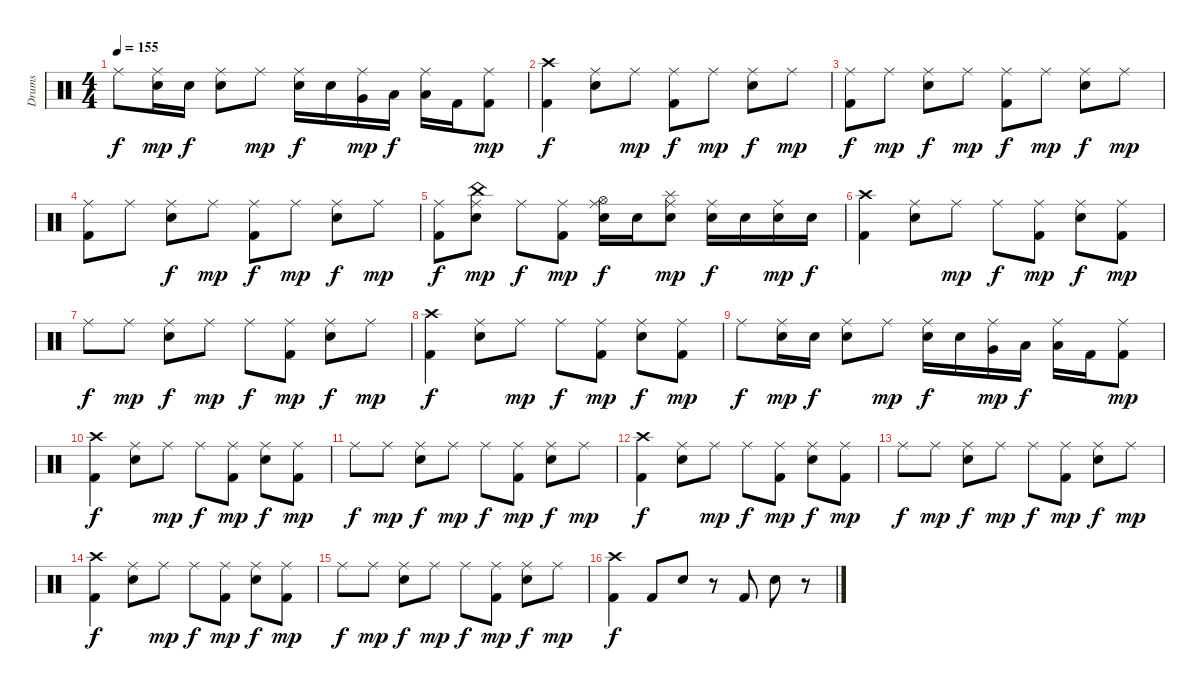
\track ("Drums" "Drums") {instrument percussion}
\staff {score}
\articulation defaults
\ts (4 4)
\tempo 155
\clef neutral
\ks c "Ride (middle)".8{dy f}
("Electric Snare (hit)" "Ride (middle)").16{dy mp} "Electric Snare (hit)".16{dy f} ("Electric Snare (hit)" "Ride (middle)").8 "Ride (middle)".8{dy mp} ("Electric Snare (hit)" "Ride (middle)").16{dy f} "Electric Snare (hit)".16 ("Very Low Tom (hit)" "Ride (middle)").16{dy mp} "Low Floor Tom (hit)".16{dy f} ("Low Floor Tom (hit)" "Ride (middle)").16 "Kick (hit) 2".16 ("Kick (hit) 2" "Ride (middle)").8{dy mp} |
("Kick (hit) 2" "Crash high (hit)").4{dy f} ("Ride (middle)" "Electric Snare (hit)").8 "Ride (middle)".8{dy mp} ("Kick (hit) 2" "Ride (middle)").8{dy f} "Ride (middle)".8{dy mp} ("Electric Snare (hit)" "Ride (middle)").8{dy f} "Ride (middle)".8{dy mp} |
("Kick (hit) 2" "Ride (middle)").8{dy f} "Ride (middle)".8{dy mp} ("Electric Snare (hit)" "Ride (middle)").8{dy f} "Ride (middle)".8{dy mp} ("Kick (hit) 2" "Ride (middle)").8{dy f} "Ride (middle)".8{dy mp} ("Electric Snare (hit)" "Ride (middle)").8{dy f} "Ride (middle)".8{dy mp} |
("Ride (middle)" "Kick (hit) 2").8 "Ride (middle)".8 ("Ride (middle)" "Electric Snare (hit)").8{dy f} "Ride (middle)".8{dy mp} ("Kick (hit) 2" "Ride (middle)").8{dy f} "Ride (middle)".8{dy mp} ("Electric Snare (hit)" "Ride (middle)").8{dy f} "Ride (middle)".8{dy mp} |
("Kick (hit) 2" "Ride (middle)").8{dy f} ("Electric Snare (hit)" "China (hit)" "Ride (middle)").8{dy mp} "Ride (middle)".8{dy f} ("Kick (hit) 2" "Ride (middle)").8{dy mp} ("Hi-Hat (open)" "Electric Snare (hit)" "Ride (middle)").16{dy f} "Electric Snare (hit)".16 ("Splash (hit)" "Electric Snare (hit)" "Ride (middle)").8{dy mp} ("Electric Snare (hit)" "Ride (middle)").16{dy f} "Electric Snare (hit)".16 ("Electric Snare (hit)" "Ride (middle)").16{dy mp} "Electric Snare (hit)".16{dy f} |
("Kick (hit) 2" "Crash high (hit)").4 ("Ride (middle)" "Electric Snare (hit)").8 "Ride (middle)".8{dy mp} "Ride (middle)".8{dy f} ("Kick (hit) 2" "Ride (middle)").8{dy mp} ("Electric Snare (hit)" "Ride (middle)").8{dy f} ("Kick (hit) 2" "Ride (middle)").8{dy mp} |
"Ride (middle)".8{dy f} "Ride (middle)".8{dy mp} ("Electric Snare (hit)" "Ride (middle)").8{dy f} "Ride (middle)".8{dy mp} "Ride (middle)".8{dy f} ("Kick (hit) 2" "Ride (middle)").8{dy mp} ("Electric Snare (hit)" "Ride (middle)").8{dy f} "Ride (middle)".8{dy mp} |
("Kick (hit) 2" "Crash high (hit)").4{dy f} ("Ride (middle)" "Electric Snare (hit)").8 "Ride (middle)".8{dy mp} "Ride (middle)".8{dy f} ("Kick (hit) 2" "Ride (middle)").8{dy mp} ("Electric Snare (hit)" "Ride (middle)").8{dy f} ("Kick (hit) 2" "Ride (middle)").8{dy mp} |
"Ride (middle)".8{dy f} ("Electric Snare (hit)" "Ride (middle)").16{dy mp} "Electric Snare (hit)".16{dy f} ("Electric Snare (hit)" "Ride (middle)").8 "Ride (middle)".8{dy mp} ("Electric Snare (hit)" "Ride (middle)").16{dy f} "Electric Snare (hit)".16 ("Very Low Tom (hit)" "Ride (middle)").16{dy mp} "Low Floor Tom (hit)".16{dy f} ("Low Floor Tom (hit)" "Ride (middle)").16 "Kick (hit) 2".16 ("Kick (hit) 2" "Ride (middle)").8{dy mp} |
("Kick (hit) 2" "Crash high (hit)").4{dy f} ("Ride (middle)" "Electric Snare (hit)").8 "Ride (middle)".8{dy mp} "Ride (middle)".8{dy f} ("Kick (hit) 2" "Ride (middle)").8{dy mp} ("Electric Snare (hit)" "Ride (middle)").8{dy f} ("Kick (hit) 2" "Ride (middle)").8{dy mp} |
"Ride (middle)".8{dy f} "Ride (middle)".8{dy mp} ("Electric Snare (hit)" "Ride (middle)").8{dy f} "Ride (middle)".8{dy mp} "Ride (middle)".8{dy f} ("Kick (hit) 2" "Ride (middle)").8{dy mp} ("Electric Snare (hit)" "Ride (middle)").8{dy f} "Ride (middle)".8{dy mp} |
("Kick (hit) 2" "Crash high (hit)").4{dy f} ("Ride (middle)" "Electric Snare (hit)").8 "Ride (middle)".8{dy mp} "Ride (middle)".8{dy f} ("Kick (hit) 2" "Ride (middle)").8{dy mp} ("Electric Snare (hit)" "Ride (middle)").8{dy f} ("Kick (hit) 2" "Ride (middle)").8{dy mp} |
"Ride (middle)".8{dy f} "Ride (middle)".8{dy mp} ("Electric Snare (hit)" "Ride (middle)").8{dy f} "Ride (middle)".8{dy mp} "Ride (middle)".8{dy f} ("Kick (hit) 2" "Ride (middle)").8{dy mp} ("Electric Snare (hit)" "Ride (middle)").8{dy f} "Ride (middle)".8{dy mp} |
("Kick (hit) 2" "Crash high (hit)").4{dy f} ("Ride (middle)" "Electric Snare (hit)").8 "Ride (middle)".8{dy mp} "Ride (middle)".8{dy f} ("Kick (hit) 2" "Ride (middle)").8{dy mp} ("Electric Snare (hit)" "Ride (middle)").8{dy f} ("Kick (hit) 2" "Ride (middle)").8{dy mp} |
"Ride (middle)".8{dy f} "Ride (middle)".8{dy mp} ("Electric Snare (hit)" "Ride (middle)").8{dy f} "Ride (middle)".8{dy mp} "Ride (middle)".8{dy f} ("Kick (hit) 2" "Ride (middle)").8{dy mp} ("Electric Snare (hit)" "Ride (middle)").8{dy f} "Ride (middle)".8{dy mp} |
("Kick (hit) 2" "Crash high (hit)").4{dy f} "Kick (hit) 2".8 "Electric Snare (hit)".8 r.8 "Kick (hit) 2".8 "Electric Snare (hit)".8 r.8
